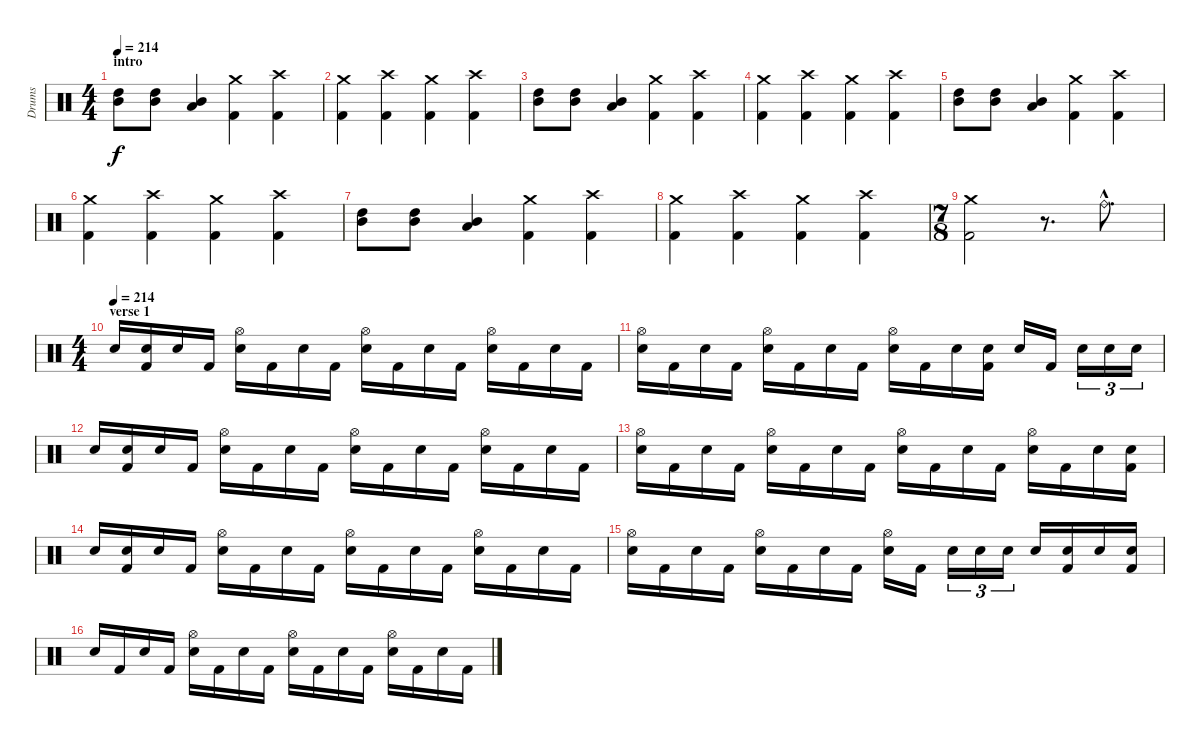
\track ("Drums" "Drums") {instrument percussion}
\staff {score}
\articulation defaults
\ts (4 4)
\section ("" "intro")
\tempo 214
\tempo 205
\tempo 214
\clef neutral
\ks c
("Mid Tom (hit)" "High Tom (hit)").8{dy f} ("Mid Tom (hit)" "High Tom (hit)").8 ("Low Tom (hit)" "Mid Tom (hit)").4 ("Crash medium (hit)" "Kick (hit) 2").4 ("Crash high (hit)" "Kick (hit) 2").4 |
("Crash medium (hit)" "Kick (hit) 2").4 ("Crash high (hit)" "Kick (hit) 2").4 ("Crash medium (hit)" "Kick (hit) 2").4 ("Crash high (hit)" "Kick (hit) 2").4 |
("Mid Tom (hit)" "High Tom (hit)").8 ("Mid Tom (hit)" "High Tom (hit)").8 ("Low Tom (hit)" "Mid Tom (hit)").4 ("Crash medium (hit)" "Kick (hit) 2").4 ("Crash high (hit)" "Kick (hit) 2").4 |
("Crash medium (hit)" "Kick (hit) 2").4 ("Crash high (hit)" "Kick (hit) 2").4 ("Crash medium (hit)" "Kick (hit) 2").4 ("Crash high (hit)" "Kick (hit) 2").4 |
("Mid Tom (hit)" "High Tom (hit)").8 ("Mid Tom (hit)" "High Tom (hit)").8 ("Low Tom (hit)" "Mid Tom (hit)").4 ("Crash medium (hit)" "Kick (hit) 2").4 ("Crash high (hit)" "Kick (hit) 2").4 |
("Crash medium (hit)" "Kick (hit) 2").4 ("Crash high (hit)" "Kick (hit) 2").4 ("Crash medium (hit)" "Kick (hit) 2").4 ("Crash high (hit)" "Kick (hit) 2").4 |
("Mid Tom (hit)" "High Tom (hit)").8 ("Mid Tom (hit)" "High Tom (hit)").8 ("Low Tom (hit)" "Mid Tom (hit)").4 ("Crash medium (hit)" "Kick (hit) 2").4 ("Crash high (hit)" "Kick (hit) 2").4 |
("Crash medium (hit)" "Kick (hit) 2").4 ("Crash high (hit)" "Kick (hit) 2").4 ("Crash medium (hit)" "Kick (hit) 2").4 ("Crash high (hit)" "Kick (hit) 2").4 |
\ts (7 8)
("Crash medium (hit)" "Kick (hit) 2").2 r.8{d} "Ride (bell)"{hac}.8{d} |
\ts (4 4)
\section ("" "verse 1")
\tempo (214)
"Snare (hit) 2".16 ("Snare (hit) 2" "Kick (hit) 2").16 "Snare (hit) 2".16 "Kick (hit) 2".16 ("Hi-Hat (open)" "Snare (hit) 2").16 "Kick (hit) 2".16 "Snare (hit) 2".16 "Kick (hit) 2".16 ("Hi-Hat (open)" "Snare (hit) 2").16 "Kick (hit) 2".16 "Snare (hit) 2".16 "Kick (hit) 2".16 ("Hi-Hat (open)" "Snare (hit) 2").16 "Kick (hit) 2".16 "Snare (hit) 2".16 "Kick (hit) 2".16 |
("Hi-Hat (open)" "Snare (hit) 2").16 "Kick (hit) 2".16 "Snare (hit) 2".16 "Kick (hit) 2".16 ("Hi-Hat (open)" "Snare (hit) 2").16 "Kick (hit) 2".16 "Snare (hit) 2".16 "Kick (hit) 2".16 ("Hi-Hat (open)" "Snare (hit) 2").16 "Kick (hit) 2".16 "Snare (hit) 2".16 ("Snare (hit) 2" "Kick (hit) 2").16 "Snare (hit) 2".16 "Kick (hit) 2".16 "Snare (hit) 2".16{tu (3 2)} "Snare (hit) 2".16{tu (3 2)} "Snare (hit) 2".16{tu (3 2)} |
"Snare (hit) 2".16 ("Snare (hit) 2" "Kick (hit) 2").16 "Snare (hit) 2".16 "Kick (hit) 2".16 ("Hi-Hat (open)" "Snare (hit) 2").16 "Kick (hit) 2".16 "Snare (hit) 2".16 "Kick (hit) 2".16 ("Hi-Hat (open)" "Snare (hit) 2").16 "Kick (hit) 2".16 "Snare (hit) 2".16 "Kick (hit) 2".16 ("Hi-Hat (open)" "Snare (hit) 2").16 "Kick (hit) 2".16 "Snare (hit) 2".16 "Kick (hit) 2".16 |
("Hi-Hat (open)" "Snare (hit) 2").16 "Kick (hit) 2".16 "Snare (hit) 2".16 "Kick (hit) 2".16 ("Hi-Hat (open)" "Snare (hit) 2").16 "Kick (hit) 2".16 "Snare (hit) 2".16 "Kick (hit) 2".16 ("Hi-Hat (open)" "Snare (hit) 2").16 "Kick (hit) 2".16 "Snare (hit) 2".16 "Kick (hit) 2".16 ("Hi-Hat (open)" "Snare (hit) 2").16 "Kick (hit) 2".16 "Snare (hit) 2".16 ("Snare (hit) 2" "Kick (hit) 2").16 |
"Snare (hit) 2".16 ("Snare (hit) 2" "Kick (hit) 2").16 "Snare (hit) 2".16 "Kick (hit) 2".16 ("Hi-Hat (open)" "Snare (hit) 2").16 "Kick (hit) 2".16 "Snare (hit) 2".16 "Kick (hit) 2".16 ("Hi-Hat (open)" "Snare (hit) 2").16 "Kick (hit) 2".16 "Snare (hit) 2".16 "Kick (hit) 2".16 ("Hi-Hat (open)" "Snare (hit) 2").16 "Kick (hit) 2".16 "Snare (hit) 2".16 "Kick (hit) 2".16 |
("Hi-Hat (open)" "Snare (hit) 2").16 "Kick (hit) 2".16 "Snare (hit) 2".16 "Kick (hit) 2".16 ("Hi-Hat (open)" "Snare (hit) 2").16 "Kick (hit) 2".16 "Snare (hit) 2".16 "Kick (hit) 2".16 ("Hi-Hat (open)" "Snare (hit) 2").16 "Kick (hit) 2".16 "Snare (hit) 2".16{tu (3 2)} "Snare (hit) 2".16{tu (3 2)} "Snare (hit) 2".16{tu (3 2)} "Snare (hit) 2".16 ("Snare (hit) 2" "Kick (hit) 2").16 "Snare (hit) 2".16 ("Snare (hit) 2" "Kick (hit) 2").16 |
"Snare (hit) 2".16 "Kick (hit) 2".16 "Snare (hit) 2".16 "Kick (hit) 2".16 ("Hi-Hat (open)" "Snare (hit) 2").16 "Kick (hit) 2".16 "Snare (hit) 2".16 "Kick (hit) 2".16 ("Hi-Hat (open)" "Snare (hit) 2").16 "Kick (hit) 2".16 "Snare (hit) 2".16 "Kick (hit) 2".16 ("Hi-Hat (open)" "Snare (hit) 2").16 "Kick (hit) 2".16 "Snare (hit) 2".16 "Kick (hit) 2".16
